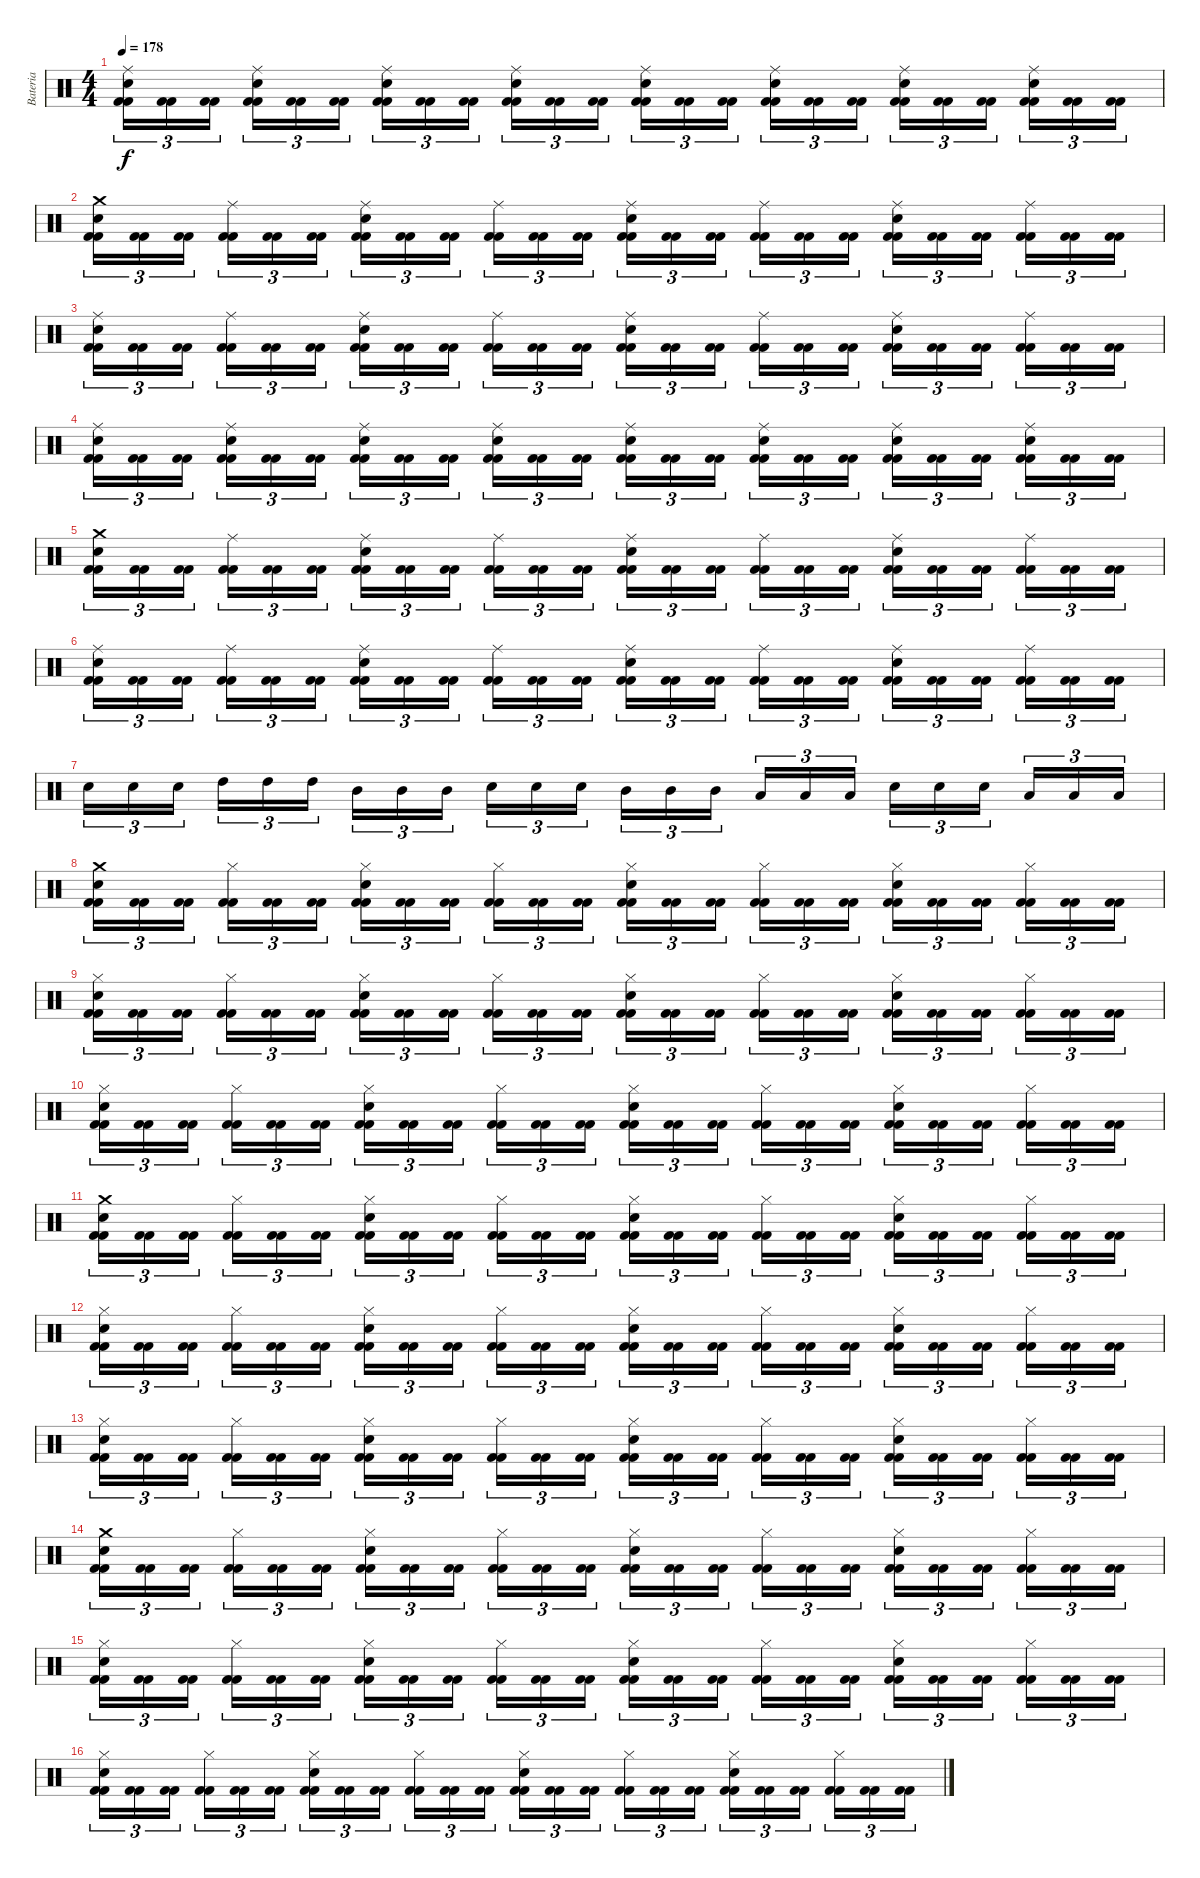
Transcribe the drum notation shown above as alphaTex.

\track ("Bateria" "Bateria") {instrument percussion}
\staff {score}
\articulation defaults
\ts (4 4)
\tempo 178
\clef neutral
\ks c
("Kick (hit) 2" "Kick (hit) 2" "Snare (hit) 2" "Ride (middle)").16{tu (3 2) dy f} ("Kick (hit) 2" "Kick (hit) 2").16{tu (3 2)} ("Kick (hit) 2" "Kick (hit) 2").16{tu (3 2)} ("Kick (hit) 2" "Kick (hit) 2" "Snare (hit) 2" "Ride (middle)").16{tu (3 2)} ("Kick (hit) 2" "Kick (hit) 2").16{tu (3 2)} ("Kick (hit) 2" "Kick (hit) 2").16{tu (3 2)} ("Kick (hit) 2" "Kick (hit) 2" "Snare (hit) 2" "Ride (middle)").16{tu (3 2)} ("Kick (hit) 2" "Kick (hit) 2").16{tu (3 2)} ("Kick (hit) 2" "Kick (hit) 2").16{tu (3 2)} ("Kick (hit) 2" "Kick (hit) 2" "Snare (hit) 2" "Ride (middle)").16{tu (3 2)} ("Kick (hit) 2" "Kick (hit) 2").16{tu (3 2)} ("Kick (hit) 2" "Kick (hit) 2").16{tu (3 2)} ("Kick (hit) 2" "Kick (hit) 2" "Snare (hit) 2" "Ride (middle)").16{tu (3 2)} ("Kick (hit) 2" "Kick (hit) 2").16{tu (3 2)} ("Kick (hit) 2" "Kick (hit) 2").16{tu (3 2)} ("Kick (hit) 2" "Kick (hit) 2" "Snare (hit) 2" "Ride (middle)").16{tu (3 2)} ("Kick (hit) 2" "Kick (hit) 2").16{tu (3 2)} ("Kick (hit) 2" "Kick (hit) 2").16{tu (3 2)} ("Kick (hit) 2" "Kick (hit) 2" "Snare (hit) 2" "Ride (middle)").16{tu (3 2)} ("Kick (hit) 2" "Kick (hit) 2").16{tu (3 2)} ("Kick (hit) 2" "Kick (hit) 2").16{tu (3 2)} ("Kick (hit) 2" "Kick (hit) 2" "Snare (hit) 2" "Ride (middle)").16{tu (3 2)} ("Kick (hit) 2" "Kick (hit) 2").16{tu (3 2)} ("Kick (hit) 2" "Kick (hit) 2").16{tu (3 2)} |
("Kick (hit) 2" "Kick (hit) 2" "Snare (hit) 2" "Crash medium (hit)").16{tu (3 2)} ("Kick (hit) 2" "Kick (hit) 2").16{tu (3 2)} ("Kick (hit) 2" "Kick (hit) 2").16{tu (3 2)} ("Kick (hit) 2" "Kick (hit) 2" "Ride (middle)").16{tu (3 2)} ("Kick (hit) 2" "Kick (hit) 2").16{tu (3 2)} ("Kick (hit) 2" "Kick (hit) 2").16{tu (3 2)} ("Kick (hit) 2" "Kick (hit) 2" "Snare (hit) 2" "Ride (middle)").16{tu (3 2)} ("Kick (hit) 2" "Kick (hit) 2").16{tu (3 2)} ("Kick (hit) 2" "Kick (hit) 2").16{tu (3 2)} ("Kick (hit) 2" "Kick (hit) 2" "Ride (middle)").16{tu (3 2)} ("Kick (hit) 2" "Kick (hit) 2").16{tu (3 2)} ("Kick (hit) 2" "Kick (hit) 2").16{tu (3 2)} ("Kick (hit) 2" "Kick (hit) 2" "Snare (hit) 2" "Ride (middle)").16{tu (3 2)} ("Kick (hit) 2" "Kick (hit) 2").16{tu (3 2)} ("Kick (hit) 2" "Kick (hit) 2").16{tu (3 2)} ("Kick (hit) 2" "Kick (hit) 2" "Ride (middle)").16{tu (3 2)} ("Kick (hit) 2" "Kick (hit) 2").16{tu (3 2)} ("Kick (hit) 2" "Kick (hit) 2").16{tu (3 2)} ("Kick (hit) 2" "Kick (hit) 2" "Snare (hit) 2" "Ride (middle)").16{tu (3 2)} ("Kick (hit) 2" "Kick (hit) 2").16{tu (3 2)} ("Kick (hit) 2" "Kick (hit) 2").16{tu (3 2)} ("Kick (hit) 2" "Kick (hit) 2" "Ride (middle)").16{tu (3 2)} ("Kick (hit) 2" "Kick (hit) 2").16{tu (3 2)} ("Kick (hit) 2" "Kick (hit) 2").16{tu (3 2)} |
("Kick (hit) 2" "Kick (hit) 2" "Snare (hit) 2" "Ride (middle)").16{tu (3 2)} ("Kick (hit) 2" "Kick (hit) 2").16{tu (3 2)} ("Kick (hit) 2" "Kick (hit) 2").16{tu (3 2)} ("Kick (hit) 2" "Kick (hit) 2" "Ride (middle)").16{tu (3 2)} ("Kick (hit) 2" "Kick (hit) 2").16{tu (3 2)} ("Kick (hit) 2" "Kick (hit) 2").16{tu (3 2)} ("Kick (hit) 2" "Kick (hit) 2" "Snare (hit) 2" "Ride (middle)").16{tu (3 2)} ("Kick (hit) 2" "Kick (hit) 2").16{tu (3 2)} ("Kick (hit) 2" "Kick (hit) 2").16{tu (3 2)} ("Kick (hit) 2" "Kick (hit) 2" "Ride (middle)").16{tu (3 2)} ("Kick (hit) 2" "Kick (hit) 2").16{tu (3 2)} ("Kick (hit) 2" "Kick (hit) 2").16{tu (3 2)} ("Kick (hit) 2" "Kick (hit) 2" "Snare (hit) 2" "Ride (middle)").16{tu (3 2)} ("Kick (hit) 2" "Kick (hit) 2").16{tu (3 2)} ("Kick (hit) 2" "Kick (hit) 2").16{tu (3 2)} ("Kick (hit) 2" "Kick (hit) 2" "Ride (middle)").16{tu (3 2)} ("Kick (hit) 2" "Kick (hit) 2").16{tu (3 2)} ("Kick (hit) 2" "Kick (hit) 2").16{tu (3 2)} ("Kick (hit) 2" "Kick (hit) 2" "Snare (hit) 2" "Ride (middle)").16{tu (3 2)} ("Kick (hit) 2" "Kick (hit) 2").16{tu (3 2)} ("Kick (hit) 2" "Kick (hit) 2").16{tu (3 2)} ("Kick (hit) 2" "Kick (hit) 2" "Ride (middle)").16{tu (3 2)} ("Kick (hit) 2" "Kick (hit) 2").16{tu (3 2)} ("Kick (hit) 2" "Kick (hit) 2").16{tu (3 2)} |
("Kick (hit) 2" "Kick (hit) 2" "Snare (hit) 2" "Ride (middle)").16{tu (3 2)} ("Kick (hit) 2" "Kick (hit) 2").16{tu (3 2)} ("Kick (hit) 2" "Kick (hit) 2").16{tu (3 2)} ("Kick (hit) 2" "Kick (hit) 2" "Snare (hit) 2" "Ride (middle)").16{tu (3 2)} ("Kick (hit) 2" "Kick (hit) 2").16{tu (3 2)} ("Kick (hit) 2" "Kick (hit) 2").16{tu (3 2)} ("Kick (hit) 2" "Kick (hit) 2" "Snare (hit) 2" "Ride (middle)").16{tu (3 2)} ("Kick (hit) 2" "Kick (hit) 2").16{tu (3 2)} ("Kick (hit) 2" "Kick (hit) 2").16{tu (3 2)} ("Kick (hit) 2" "Kick (hit) 2" "Snare (hit) 2" "Ride (middle)").16{tu (3 2)} ("Kick (hit) 2" "Kick (hit) 2").16{tu (3 2)} ("Kick (hit) 2" "Kick (hit) 2").16{tu (3 2)} ("Kick (hit) 2" "Kick (hit) 2" "Snare (hit) 2" "Ride (middle)").16{tu (3 2)} ("Kick (hit) 2" "Kick (hit) 2").16{tu (3 2)} ("Kick (hit) 2" "Kick (hit) 2").16{tu (3 2)} ("Kick (hit) 2" "Kick (hit) 2" "Snare (hit) 2" "Ride (middle)").16{tu (3 2)} ("Kick (hit) 2" "Kick (hit) 2").16{tu (3 2)} ("Kick (hit) 2" "Kick (hit) 2").16{tu (3 2)} ("Kick (hit) 2" "Kick (hit) 2" "Snare (hit) 2" "Ride (middle)").16{tu (3 2)} ("Kick (hit) 2" "Kick (hit) 2").16{tu (3 2)} ("Kick (hit) 2" "Kick (hit) 2").16{tu (3 2)} ("Kick (hit) 2" "Kick (hit) 2" "Snare (hit) 2" "Ride (middle)").16{tu (3 2)} ("Kick (hit) 2" "Kick (hit) 2").16{tu (3 2)} ("Kick (hit) 2" "Kick (hit) 2").16{tu (3 2)} |
("Kick (hit) 2" "Kick (hit) 2" "Snare (hit) 2" "Crash medium (hit)").16{tu (3 2)} ("Kick (hit) 2" "Kick (hit) 2").16{tu (3 2)} ("Kick (hit) 2" "Kick (hit) 2").16{tu (3 2)} ("Kick (hit) 2" "Kick (hit) 2" "Ride (middle)").16{tu (3 2)} ("Kick (hit) 2" "Kick (hit) 2").16{tu (3 2)} ("Kick (hit) 2" "Kick (hit) 2").16{tu (3 2)} ("Kick (hit) 2" "Kick (hit) 2" "Snare (hit) 2" "Ride (middle)").16{tu (3 2)} ("Kick (hit) 2" "Kick (hit) 2").16{tu (3 2)} ("Kick (hit) 2" "Kick (hit) 2").16{tu (3 2)} ("Kick (hit) 2" "Kick (hit) 2" "Ride (middle)").16{tu (3 2)} ("Kick (hit) 2" "Kick (hit) 2").16{tu (3 2)} ("Kick (hit) 2" "Kick (hit) 2").16{tu (3 2)} ("Kick (hit) 2" "Kick (hit) 2" "Snare (hit) 2" "Ride (middle)").16{tu (3 2)} ("Kick (hit) 2" "Kick (hit) 2").16{tu (3 2)} ("Kick (hit) 2" "Kick (hit) 2").16{tu (3 2)} ("Kick (hit) 2" "Kick (hit) 2" "Ride (middle)").16{tu (3 2)} ("Kick (hit) 2" "Kick (hit) 2").16{tu (3 2)} ("Kick (hit) 2" "Kick (hit) 2").16{tu (3 2)} ("Kick (hit) 2" "Kick (hit) 2" "Snare (hit) 2" "Ride (middle)").16{tu (3 2)} ("Kick (hit) 2" "Kick (hit) 2").16{tu (3 2)} ("Kick (hit) 2" "Kick (hit) 2").16{tu (3 2)} ("Kick (hit) 2" "Kick (hit) 2" "Ride (middle)").16{tu (3 2)} ("Kick (hit) 2" "Kick (hit) 2").16{tu (3 2)} ("Kick (hit) 2" "Kick (hit) 2").16{tu (3 2)} |
("Kick (hit) 2" "Kick (hit) 2" "Snare (hit) 2" "Ride (middle)").16{tu (3 2)} ("Kick (hit) 2" "Kick (hit) 2").16{tu (3 2)} ("Kick (hit) 2" "Kick (hit) 2").16{tu (3 2)} ("Kick (hit) 2" "Kick (hit) 2" "Ride (middle)").16{tu (3 2)} ("Kick (hit) 2" "Kick (hit) 2").16{tu (3 2)} ("Kick (hit) 2" "Kick (hit) 2").16{tu (3 2)} ("Kick (hit) 2" "Kick (hit) 2" "Snare (hit) 2" "Ride (middle)").16{tu (3 2)} ("Kick (hit) 2" "Kick (hit) 2").16{tu (3 2)} ("Kick (hit) 2" "Kick (hit) 2").16{tu (3 2)} ("Kick (hit) 2" "Kick (hit) 2" "Ride (middle)").16{tu (3 2)} ("Kick (hit) 2" "Kick (hit) 2").16{tu (3 2)} ("Kick (hit) 2" "Kick (hit) 2").16{tu (3 2)} ("Kick (hit) 2" "Kick (hit) 2" "Snare (hit) 2" "Ride (middle)").16{tu (3 2)} ("Kick (hit) 2" "Kick (hit) 2").16{tu (3 2)} ("Kick (hit) 2" "Kick (hit) 2").16{tu (3 2)} ("Kick (hit) 2" "Kick (hit) 2" "Ride (middle)").16{tu (3 2)} ("Kick (hit) 2" "Kick (hit) 2").16{tu (3 2)} ("Kick (hit) 2" "Kick (hit) 2").16{tu (3 2)} ("Kick (hit) 2" "Kick (hit) 2" "Snare (hit) 2" "Ride (middle)").16{tu (3 2)} ("Kick (hit) 2" "Kick (hit) 2").16{tu (3 2)} ("Kick (hit) 2" "Kick (hit) 2").16{tu (3 2)} ("Kick (hit) 2" "Kick (hit) 2" "Ride (middle)").16{tu (3 2)} ("Kick (hit) 2" "Kick (hit) 2").16{tu (3 2)} ("Kick (hit) 2" "Kick (hit) 2").16{tu (3 2)} |
"Snare (hit) 2".16{tu (3 2)} "Snare (hit) 2".16{tu (3 2)} "Snare (hit) 2".16{tu (3 2)} "High Tom (hit)".16{tu (3 2)} "High Tom (hit)".16{tu (3 2)} "High Tom (hit)".16{tu (3 2)} "Mid Tom (hit)".16{tu (3 2)} "Mid Tom (hit)".16{tu (3 2)} "Mid Tom (hit)".16{tu (3 2)} "Snare (hit) 2".16{tu (3 2)} "Snare (hit) 2".16{tu (3 2)} "Snare (hit) 2".16{tu (3 2)} "Mid Tom (hit)".16{tu (3 2)} "Mid Tom (hit)".16{tu (3 2)} "Mid Tom (hit)".16{tu (3 2)} "Low Tom (hit)".16{tu (3 2)} "Low Tom (hit)".16{tu (3 2)} "Low Tom (hit)".16{tu (3 2)} "Snare (hit) 2".16{tu (3 2)} "Snare (hit) 2".16{tu (3 2)} "Snare (hit) 2".16{tu (3 2)} "Low Tom (hit)".16{tu (3 2)} "Low Tom (hit)".16{tu (3 2)} "Low Tom (hit)".16{tu (3 2)} |
("Kick (hit) 2" "Kick (hit) 2" "Snare (hit) 2" "Crash medium (hit)").16{tu (3 2)} ("Kick (hit) 2" "Kick (hit) 2").16{tu (3 2)} ("Kick (hit) 2" "Kick (hit) 2").16{tu (3 2)} ("Kick (hit) 2" "Kick (hit) 2" "Hi-Hat (closed)").16{tu (3 2)} ("Kick (hit) 2" "Kick (hit) 2").16{tu (3 2)} ("Kick (hit) 2" "Kick (hit) 2").16{tu (3 2)} ("Kick (hit) 2" "Kick (hit) 2" "Snare (hit) 2" "Hi-Hat (closed)").16{tu (3 2)} ("Kick (hit) 2" "Kick (hit) 2").16{tu (3 2)} ("Kick (hit) 2" "Kick (hit) 2").16{tu (3 2)} ("Kick (hit) 2" "Kick (hit) 2" "Hi-Hat (closed)").16{tu (3 2)} ("Kick (hit) 2" "Kick (hit) 2").16{tu (3 2)} ("Kick (hit) 2" "Kick (hit) 2").16{tu (3 2)} ("Kick (hit) 2" "Kick (hit) 2" "Snare (hit) 2" "Hi-Hat (closed)").16{tu (3 2)} ("Kick (hit) 2" "Kick (hit) 2").16{tu (3 2)} ("Kick (hit) 2" "Kick (hit) 2").16{tu (3 2)} ("Kick (hit) 2" "Kick (hit) 2" "Hi-Hat (closed)").16{tu (3 2)} ("Kick (hit) 2" "Kick (hit) 2").16{tu (3 2)} ("Kick (hit) 2" "Kick (hit) 2").16{tu (3 2)} ("Kick (hit) 2" "Kick (hit) 2" "Snare (hit) 2" "Hi-Hat (closed)").16{tu (3 2)} ("Kick (hit) 2" "Kick (hit) 2").16{tu (3 2)} ("Kick (hit) 2" "Kick (hit) 2").16{tu (3 2)} ("Kick (hit) 2" "Kick (hit) 2" "Hi-Hat (closed)").16{tu (3 2)} ("Kick (hit) 2" "Kick (hit) 2").16{tu (3 2)} ("Kick (hit) 2" "Kick (hit) 2").16{tu (3 2)} |
("Kick (hit) 2" "Kick (hit) 2" "Snare (hit) 2" "Hi-Hat (closed)").16{tu (3 2)} ("Kick (hit) 2" "Kick (hit) 2").16{tu (3 2)} ("Kick (hit) 2" "Kick (hit) 2").16{tu (3 2)} ("Kick (hit) 2" "Kick (hit) 2" "Hi-Hat (closed)").16{tu (3 2)} ("Kick (hit) 2" "Kick (hit) 2").16{tu (3 2)} ("Kick (hit) 2" "Kick (hit) 2").16{tu (3 2)} ("Kick (hit) 2" "Kick (hit) 2" "Snare (hit) 2" "Hi-Hat (closed)").16{tu (3 2)} ("Kick (hit) 2" "Kick (hit) 2").16{tu (3 2)} ("Kick (hit) 2" "Kick (hit) 2").16{tu (3 2)} ("Kick (hit) 2" "Kick (hit) 2" "Hi-Hat (closed)").16{tu (3 2)} ("Kick (hit) 2" "Kick (hit) 2").16{tu (3 2)} ("Kick (hit) 2" "Kick (hit) 2").16{tu (3 2)} ("Kick (hit) 2" "Kick (hit) 2" "Snare (hit) 2" "Hi-Hat (closed)").16{tu (3 2)} ("Kick (hit) 2" "Kick (hit) 2").16{tu (3 2)} ("Kick (hit) 2" "Kick (hit) 2").16{tu (3 2)} ("Kick (hit) 2" "Kick (hit) 2" "Hi-Hat (closed)").16{tu (3 2)} ("Kick (hit) 2" "Kick (hit) 2").16{tu (3 2)} ("Kick (hit) 2" "Kick (hit) 2").16{tu (3 2)} ("Kick (hit) 2" "Kick (hit) 2" "Snare (hit) 2" "Hi-Hat (closed)").16{tu (3 2)} ("Kick (hit) 2" "Kick (hit) 2").16{tu (3 2)} ("Kick (hit) 2" "Kick (hit) 2").16{tu (3 2)} ("Kick (hit) 2" "Kick (hit) 2" "Hi-Hat (closed)").16{tu (3 2)} ("Kick (hit) 2" "Kick (hit) 2").16{tu (3 2)} ("Kick (hit) 2" "Kick (hit) 2").16{tu (3 2)} |
("Kick (hit) 2" "Kick (hit) 2" "Snare (hit) 2" "Hi-Hat (closed)").16{tu (3 2)} ("Kick (hit) 2" "Kick (hit) 2").16{tu (3 2)} ("Kick (hit) 2" "Kick (hit) 2").16{tu (3 2)} ("Kick (hit) 2" "Kick (hit) 2" "Hi-Hat (closed)").16{tu (3 2)} ("Kick (hit) 2" "Kick (hit) 2").16{tu (3 2)} ("Kick (hit) 2" "Kick (hit) 2").16{tu (3 2)} ("Kick (hit) 2" "Kick (hit) 2" "Snare (hit) 2" "Hi-Hat (closed)").16{tu (3 2)} ("Kick (hit) 2" "Kick (hit) 2").16{tu (3 2)} ("Kick (hit) 2" "Kick (hit) 2").16{tu (3 2)} ("Kick (hit) 2" "Kick (hit) 2" "Hi-Hat (closed)").16{tu (3 2)} ("Kick (hit) 2" "Kick (hit) 2").16{tu (3 2)} ("Kick (hit) 2" "Kick (hit) 2").16{tu (3 2)} ("Kick (hit) 2" "Kick (hit) 2" "Snare (hit) 2" "Hi-Hat (closed)").16{tu (3 2)} ("Kick (hit) 2" "Kick (hit) 2").16{tu (3 2)} ("Kick (hit) 2" "Kick (hit) 2").16{tu (3 2)} ("Kick (hit) 2" "Kick (hit) 2" "Hi-Hat (closed)").16{tu (3 2)} ("Kick (hit) 2" "Kick (hit) 2").16{tu (3 2)} ("Kick (hit) 2" "Kick (hit) 2").16{tu (3 2)} ("Kick (hit) 2" "Kick (hit) 2" "Snare (hit) 2" "Hi-Hat (closed)").16{tu (3 2)} ("Kick (hit) 2" "Kick (hit) 2").16{tu (3 2)} ("Kick (hit) 2" "Kick (hit) 2").16{tu (3 2)} ("Kick (hit) 2" "Kick (hit) 2" "Hi-Hat (closed)").16{tu (3 2)} ("Kick (hit) 2" "Kick (hit) 2").16{tu (3 2)} ("Kick (hit) 2" "Kick (hit) 2").16{tu (3 2)} |
("Kick (hit) 2" "Kick (hit) 2" "Snare (hit) 2" "Crash medium (hit)").16{tu (3 2)} ("Kick (hit) 2" "Kick (hit) 2").16{tu (3 2)} ("Kick (hit) 2" "Kick (hit) 2").16{tu (3 2)} ("Kick (hit) 2" "Kick (hit) 2" "Hi-Hat (closed)").16{tu (3 2)} ("Kick (hit) 2" "Kick (hit) 2").16{tu (3 2)} ("Kick (hit) 2" "Kick (hit) 2").16{tu (3 2)} ("Kick (hit) 2" "Kick (hit) 2" "Snare (hit) 2" "Hi-Hat (closed)").16{tu (3 2)} ("Kick (hit) 2" "Kick (hit) 2").16{tu (3 2)} ("Kick (hit) 2" "Kick (hit) 2").16{tu (3 2)} ("Kick (hit) 2" "Kick (hit) 2" "Hi-Hat (closed)").16{tu (3 2)} ("Kick (hit) 2" "Kick (hit) 2").16{tu (3 2)} ("Kick (hit) 2" "Kick (hit) 2").16{tu (3 2)} ("Kick (hit) 2" "Kick (hit) 2" "Snare (hit) 2" "Hi-Hat (closed)").16{tu (3 2)} ("Kick (hit) 2" "Kick (hit) 2").16{tu (3 2)} ("Kick (hit) 2" "Kick (hit) 2").16{tu (3 2)} ("Kick (hit) 2" "Kick (hit) 2" "Hi-Hat (closed)").16{tu (3 2)} ("Kick (hit) 2" "Kick (hit) 2").16{tu (3 2)} ("Kick (hit) 2" "Kick (hit) 2").16{tu (3 2)} ("Kick (hit) 2" "Kick (hit) 2" "Snare (hit) 2" "Hi-Hat (closed)").16{tu (3 2)} ("Kick (hit) 2" "Kick (hit) 2").16{tu (3 2)} ("Kick (hit) 2" "Kick (hit) 2").16{tu (3 2)} ("Kick (hit) 2" "Kick (hit) 2" "Hi-Hat (closed)").16{tu (3 2)} ("Kick (hit) 2" "Kick (hit) 2").16{tu (3 2)} ("Kick (hit) 2" "Kick (hit) 2").16{tu (3 2)} |
("Kick (hit) 2" "Kick (hit) 2" "Snare (hit) 2" "Hi-Hat (closed)").16{tu (3 2)} ("Kick (hit) 2" "Kick (hit) 2").16{tu (3 2)} ("Kick (hit) 2" "Kick (hit) 2").16{tu (3 2)} ("Kick (hit) 2" "Kick (hit) 2" "Hi-Hat (closed)").16{tu (3 2)} ("Kick (hit) 2" "Kick (hit) 2").16{tu (3 2)} ("Kick (hit) 2" "Kick (hit) 2").16{tu (3 2)} ("Kick (hit) 2" "Kick (hit) 2" "Snare (hit) 2" "Hi-Hat (closed)").16{tu (3 2)} ("Kick (hit) 2" "Kick (hit) 2").16{tu (3 2)} ("Kick (hit) 2" "Kick (hit) 2").16{tu (3 2)} ("Kick (hit) 2" "Kick (hit) 2" "Hi-Hat (closed)").16{tu (3 2)} ("Kick (hit) 2" "Kick (hit) 2").16{tu (3 2)} ("Kick (hit) 2" "Kick (hit) 2").16{tu (3 2)} ("Kick (hit) 2" "Kick (hit) 2" "Snare (hit) 2" "Hi-Hat (closed)").16{tu (3 2)} ("Kick (hit) 2" "Kick (hit) 2").16{tu (3 2)} ("Kick (hit) 2" "Kick (hit) 2").16{tu (3 2)} ("Kick (hit) 2" "Kick (hit) 2" "Hi-Hat (closed)").16{tu (3 2)} ("Kick (hit) 2" "Kick (hit) 2").16{tu (3 2)} ("Kick (hit) 2" "Kick (hit) 2").16{tu (3 2)} ("Kick (hit) 2" "Kick (hit) 2" "Snare (hit) 2" "Hi-Hat (closed)").16{tu (3 2)} ("Kick (hit) 2" "Kick (hit) 2").16{tu (3 2)} ("Kick (hit) 2" "Kick (hit) 2").16{tu (3 2)} ("Kick (hit) 2" "Kick (hit) 2" "Hi-Hat (closed)").16{tu (3 2)} ("Kick (hit) 2" "Kick (hit) 2").16{tu (3 2)} ("Kick (hit) 2" "Kick (hit) 2").16{tu (3 2)} |
("Kick (hit) 2" "Kick (hit) 2" "Snare (hit) 2" "Hi-Hat (closed)").16{tu (3 2)} ("Kick (hit) 2" "Kick (hit) 2").16{tu (3 2)} ("Kick (hit) 2" "Kick (hit) 2").16{tu (3 2)} ("Kick (hit) 2" "Kick (hit) 2" "Hi-Hat (closed)").16{tu (3 2)} ("Kick (hit) 2" "Kick (hit) 2").16{tu (3 2)} ("Kick (hit) 2" "Kick (hit) 2").16{tu (3 2)} ("Kick (hit) 2" "Kick (hit) 2" "Snare (hit) 2" "Hi-Hat (closed)").16{tu (3 2)} ("Kick (hit) 2" "Kick (hit) 2").16{tu (3 2)} ("Kick (hit) 2" "Kick (hit) 2").16{tu (3 2)} ("Kick (hit) 2" "Kick (hit) 2" "Hi-Hat (closed)").16{tu (3 2)} ("Kick (hit) 2" "Kick (hit) 2").16{tu (3 2)} ("Kick (hit) 2" "Kick (hit) 2").16{tu (3 2)} ("Kick (hit) 2" "Kick (hit) 2" "Snare (hit) 2" "Hi-Hat (closed)").16{tu (3 2)} ("Kick (hit) 2" "Kick (hit) 2").16{tu (3 2)} ("Kick (hit) 2" "Kick (hit) 2").16{tu (3 2)} ("Kick (hit) 2" "Kick (hit) 2" "Hi-Hat (closed)").16{tu (3 2)} ("Kick (hit) 2" "Kick (hit) 2").16{tu (3 2)} ("Kick (hit) 2" "Kick (hit) 2").16{tu (3 2)} ("Kick (hit) 2" "Kick (hit) 2" "Snare (hit) 2" "Hi-Hat (closed)").16{tu (3 2)} ("Kick (hit) 2" "Kick (hit) 2").16{tu (3 2)} ("Kick (hit) 2" "Kick (hit) 2").16{tu (3 2)} ("Kick (hit) 2" "Kick (hit) 2" "Hi-Hat (closed)").16{tu (3 2)} ("Kick (hit) 2" "Kick (hit) 2").16{tu (3 2)} ("Kick (hit) 2" "Kick (hit) 2").16{tu (3 2)} |
("Kick (hit) 2" "Kick (hit) 2" "Snare (hit) 2" "Crash medium (hit)").16{tu (3 2)} ("Kick (hit) 2" "Kick (hit) 2").16{tu (3 2)} ("Kick (hit) 2" "Kick (hit) 2").16{tu (3 2)} ("Kick (hit) 2" "Kick (hit) 2" "Hi-Hat (closed)").16{tu (3 2)} ("Kick (hit) 2" "Kick (hit) 2").16{tu (3 2)} ("Kick (hit) 2" "Kick (hit) 2").16{tu (3 2)} ("Kick (hit) 2" "Kick (hit) 2" "Snare (hit) 2" "Hi-Hat (closed)").16{tu (3 2)} ("Kick (hit) 2" "Kick (hit) 2").16{tu (3 2)} ("Kick (hit) 2" "Kick (hit) 2").16{tu (3 2)} ("Kick (hit) 2" "Kick (hit) 2" "Hi-Hat (closed)").16{tu (3 2)} ("Kick (hit) 2" "Kick (hit) 2").16{tu (3 2)} ("Kick (hit) 2" "Kick (hit) 2").16{tu (3 2)} ("Kick (hit) 2" "Kick (hit) 2" "Snare (hit) 2" "Hi-Hat (closed)").16{tu (3 2)} ("Kick (hit) 2" "Kick (hit) 2").16{tu (3 2)} ("Kick (hit) 2" "Kick (hit) 2").16{tu (3 2)} ("Kick (hit) 2" "Kick (hit) 2" "Hi-Hat (closed)").16{tu (3 2)} ("Kick (hit) 2" "Kick (hit) 2").16{tu (3 2)} ("Kick (hit) 2" "Kick (hit) 2").16{tu (3 2)} ("Kick (hit) 2" "Kick (hit) 2" "Snare (hit) 2" "Hi-Hat (closed)").16{tu (3 2)} ("Kick (hit) 2" "Kick (hit) 2").16{tu (3 2)} ("Kick (hit) 2" "Kick (hit) 2").16{tu (3 2)} ("Kick (hit) 2" "Kick (hit) 2" "Hi-Hat (closed)").16{tu (3 2)} ("Kick (hit) 2" "Kick (hit) 2").16{tu (3 2)} ("Kick (hit) 2" "Kick (hit) 2").16{tu (3 2)} |
("Kick (hit) 2" "Kick (hit) 2" "Snare (hit) 2" "Hi-Hat (closed)").16{tu (3 2)} ("Kick (hit) 2" "Kick (hit) 2").16{tu (3 2)} ("Kick (hit) 2" "Kick (hit) 2").16{tu (3 2)} ("Kick (hit) 2" "Kick (hit) 2" "Hi-Hat (closed)").16{tu (3 2)} ("Kick (hit) 2" "Kick (hit) 2").16{tu (3 2)} ("Kick (hit) 2" "Kick (hit) 2").16{tu (3 2)} ("Kick (hit) 2" "Kick (hit) 2" "Snare (hit) 2" "Hi-Hat (closed)").16{tu (3 2)} ("Kick (hit) 2" "Kick (hit) 2").16{tu (3 2)} ("Kick (hit) 2" "Kick (hit) 2").16{tu (3 2)} ("Kick (hit) 2" "Kick (hit) 2" "Hi-Hat (closed)").16{tu (3 2)} ("Kick (hit) 2" "Kick (hit) 2").16{tu (3 2)} ("Kick (hit) 2" "Kick (hit) 2").16{tu (3 2)} ("Kick (hit) 2" "Kick (hit) 2" "Snare (hit) 2" "Hi-Hat (closed)").16{tu (3 2)} ("Kick (hit) 2" "Kick (hit) 2").16{tu (3 2)} ("Kick (hit) 2" "Kick (hit) 2").16{tu (3 2)} ("Kick (hit) 2" "Kick (hit) 2" "Hi-Hat (closed)").16{tu (3 2)} ("Kick (hit) 2" "Kick (hit) 2").16{tu (3 2)} ("Kick (hit) 2" "Kick (hit) 2").16{tu (3 2)} ("Kick (hit) 2" "Kick (hit) 2" "Snare (hit) 2" "Hi-Hat (closed)").16{tu (3 2)} ("Kick (hit) 2" "Kick (hit) 2").16{tu (3 2)} ("Kick (hit) 2" "Kick (hit) 2").16{tu (3 2)} ("Kick (hit) 2" "Kick (hit) 2" "Hi-Hat (closed)").16{tu (3 2)} ("Kick (hit) 2" "Kick (hit) 2").16{tu (3 2)} ("Kick (hit) 2" "Kick (hit) 2").16{tu (3 2)} |
("Kick (hit) 2" "Kick (hit) 2" "Snare (hit) 2" "Hi-Hat (closed)").16{tu (3 2)} ("Kick (hit) 2" "Kick (hit) 2").16{tu (3 2)} ("Kick (hit) 2" "Kick (hit) 2").16{tu (3 2)} ("Kick (hit) 2" "Kick (hit) 2" "Hi-Hat (closed)").16{tu (3 2)} ("Kick (hit) 2" "Kick (hit) 2").16{tu (3 2)} ("Kick (hit) 2" "Kick (hit) 2").16{tu (3 2)} ("Kick (hit) 2" "Kick (hit) 2" "Snare (hit) 2" "Hi-Hat (closed)").16{tu (3 2)} ("Kick (hit) 2" "Kick (hit) 2").16{tu (3 2)} ("Kick (hit) 2" "Kick (hit) 2").16{tu (3 2)} ("Kick (hit) 2" "Kick (hit) 2" "Hi-Hat (closed)").16{tu (3 2)} ("Kick (hit) 2" "Kick (hit) 2").16{tu (3 2)} ("Kick (hit) 2" "Kick (hit) 2").16{tu (3 2)} ("Kick (hit) 2" "Kick (hit) 2" "Snare (hit) 2" "Hi-Hat (closed)").16{tu (3 2)} ("Kick (hit) 2" "Kick (hit) 2").16{tu (3 2)} ("Kick (hit) 2" "Kick (hit) 2").16{tu (3 2)} ("Kick (hit) 2" "Kick (hit) 2" "Hi-Hat (closed)").16{tu (3 2)} ("Kick (hit) 2" "Kick (hit) 2").16{tu (3 2)} ("Kick (hit) 2" "Kick (hit) 2").16{tu (3 2)} ("Kick (hit) 2" "Kick (hit) 2" "Snare (hit) 2" "Hi-Hat (closed)").16{tu (3 2)} ("Kick (hit) 2" "Kick (hit) 2").16{tu (3 2)} ("Kick (hit) 2" "Kick (hit) 2").16{tu (3 2)} ("Kick (hit) 2" "Kick (hit) 2" "Hi-Hat (closed)").16{tu (3 2)} ("Kick (hit) 2" "Kick (hit) 2").16{tu (3 2)} ("Kick (hit) 2" "Kick (hit) 2").16{tu (3 2)}
